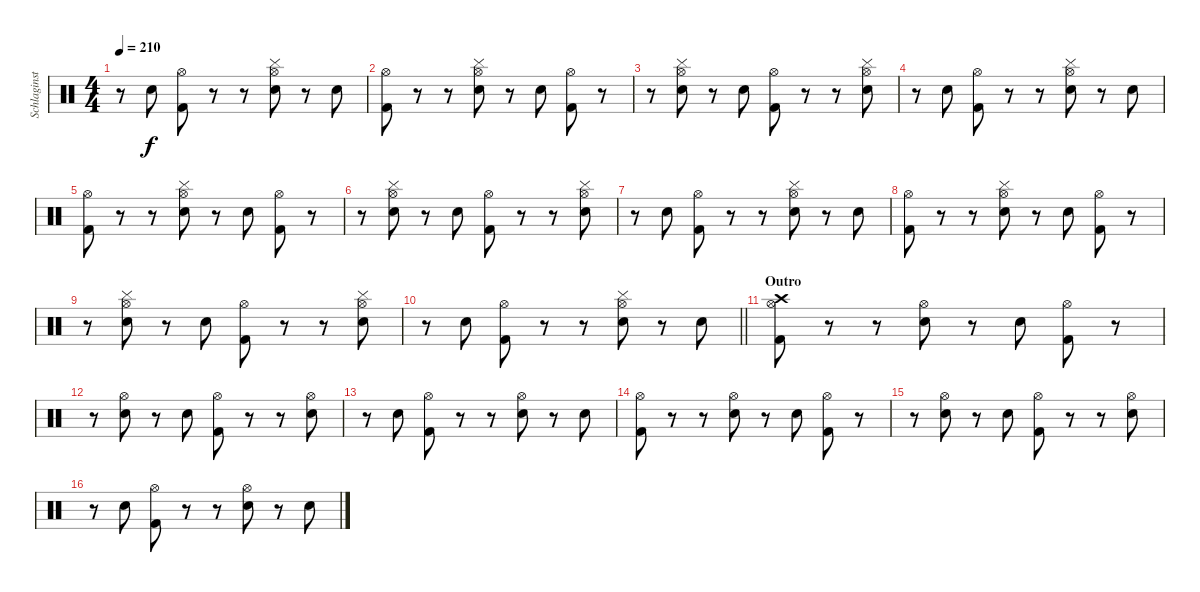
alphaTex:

\track ("Schlaginstrumente - Auswahl" "Schlaginst") {instrument percussion}
\staff {score}
\articulation defaults
\ts (4 4)
\tempo 210
\clef neutral
\ks c
r.8{dy f} "Electric Snare (hit)".8 ("Hi-Hat (open)" "Kick (hit) 2").8 r.8 r.8 ("Cymbal (hit)" "Hi-Hat (open)" "Electric Snare (hit)").8 r.8 "Electric Snare (hit)".8 |
("Hi-Hat (open)" "Kick (hit) 2").8 r.8 r.8 ("Cymbal (hit)" "Hi-Hat (open)" "Electric Snare (hit)").8 r.8 "Electric Snare (hit)".8 ("Hi-Hat (open)" "Kick (hit) 2").8 r.8 |
r.8 ("Cymbal (hit)" "Hi-Hat (open)" "Electric Snare (hit)").8 r.8 "Electric Snare (hit)".8 ("Hi-Hat (open)" "Kick (hit) 2").8 r.8 r.8 ("Cymbal (hit)" "Hi-Hat (open)" "Electric Snare (hit)").8 |
r.8 "Electric Snare (hit)".8 ("Hi-Hat (open)" "Kick (hit) 2").8 r.8 r.8 ("Cymbal (hit)" "Hi-Hat (open)" "Electric Snare (hit)").8 r.8 "Electric Snare (hit)".8 |
("Hi-Hat (open)" "Kick (hit) 2").8 r.8 r.8 ("Cymbal (hit)" "Hi-Hat (open)" "Electric Snare (hit)").8 r.8 "Electric Snare (hit)".8 ("Hi-Hat (open)" "Kick (hit) 2").8 r.8 |
r.8 ("Cymbal (hit)" "Hi-Hat (open)" "Electric Snare (hit)").8 r.8 "Electric Snare (hit)".8 ("Hi-Hat (open)" "Kick (hit) 2").8 r.8 r.8 ("Cymbal (hit)" "Hi-Hat (open)" "Electric Snare (hit)").8 |
r.8 "Electric Snare (hit)".8 ("Hi-Hat (open)" "Kick (hit) 2").8 r.8 r.8 ("Cymbal (hit)" "Hi-Hat (open)" "Electric Snare (hit)").8 r.8 "Electric Snare (hit)".8 |
("Hi-Hat (open)" "Kick (hit) 2").8 r.8 r.8 ("Cymbal (hit)" "Hi-Hat (open)" "Electric Snare (hit)").8 r.8 "Electric Snare (hit)".8 ("Hi-Hat (open)" "Kick (hit) 2").8 r.8 |
r.8 ("Cymbal (hit)" "Hi-Hat (open)" "Electric Snare (hit)").8 r.8 "Electric Snare (hit)".8 ("Hi-Hat (open)" "Kick (hit) 2").8 r.8 r.8 ("Cymbal (hit)" "Hi-Hat (open)" "Electric Snare (hit)").8 |
\barLineRight lightlight
r.8 "Electric Snare (hit)".8 ("Hi-Hat (open)" "Kick (hit) 2").8 r.8 r.8 ("Cymbal (hit)" "Hi-Hat (open)" "Electric Snare (hit)").8 r.8 "Electric Snare (hit)".8 |
\section ("" "Outro")
("Crash high (hit)" "Hi-Hat (open)" "Kick (hit) 2").8 r.8 r.8 ("Hi-Hat (open)" "Electric Snare (hit)").8 r.8 "Electric Snare (hit)".8 ("Hi-Hat (open)" "Kick (hit) 2").8 r.8 |
r.8 ("Hi-Hat (open)" "Electric Snare (hit)").8 r.8 "Electric Snare (hit)".8 ("Hi-Hat (open)" "Kick (hit) 2").8 r.8 r.8 ("Hi-Hat (open)" "Electric Snare (hit)").8 |
r.8 "Electric Snare (hit)".8 ("Hi-Hat (open)" "Kick (hit) 2").8 r.8 r.8 ("Hi-Hat (open)" "Electric Snare (hit)").8 r.8 "Electric Snare (hit)".8 |
("Hi-Hat (open)" "Kick (hit) 2").8 r.8 r.8 ("Hi-Hat (open)" "Electric Snare (hit)").8 r.8 "Electric Snare (hit)".8 ("Hi-Hat (open)" "Kick (hit) 2").8 r.8 |
r.8 ("Hi-Hat (open)" "Electric Snare (hit)").8 r.8 "Electric Snare (hit)".8 ("Hi-Hat (open)" "Kick (hit) 2").8 r.8 r.8 ("Hi-Hat (open)" "Electric Snare (hit)").8 |
r.8 "Electric Snare (hit)".8 ("Hi-Hat (open)" "Kick (hit) 2").8 r.8 r.8 ("Hi-Hat (open)" "Electric Snare (hit)").8 r.8 "Electric Snare (hit)".8
